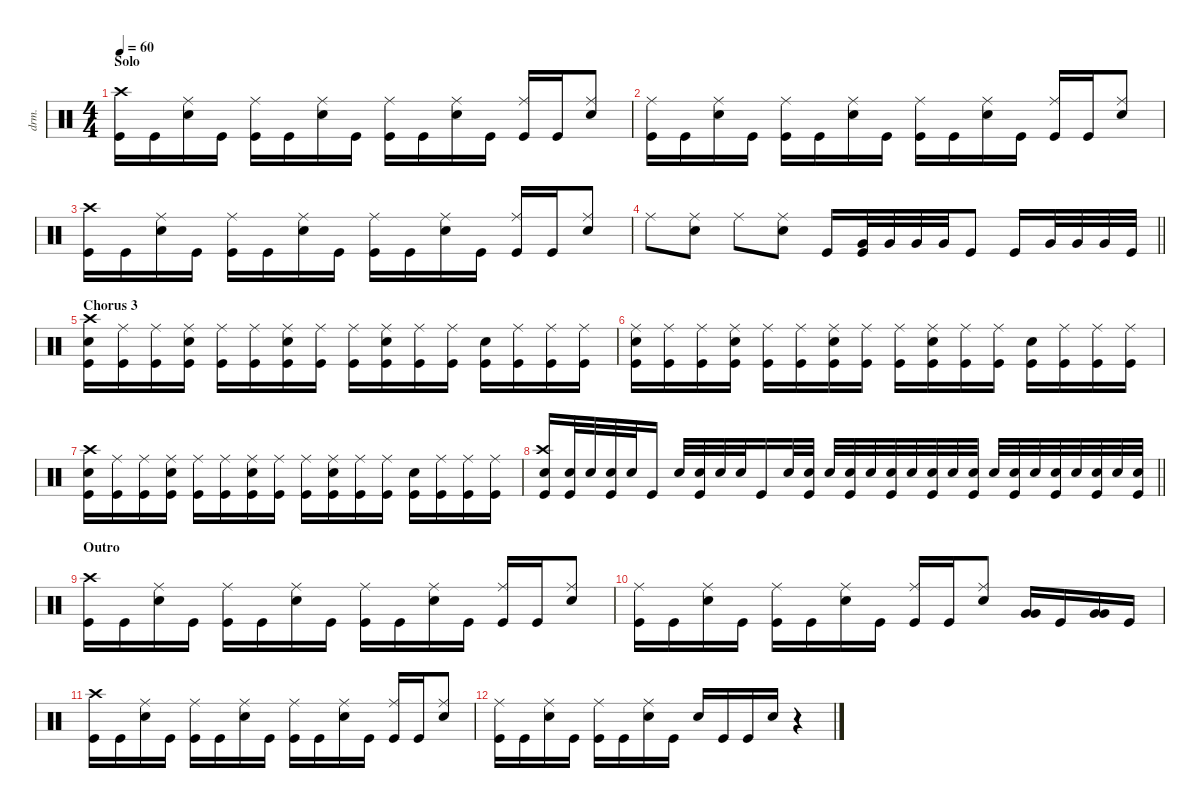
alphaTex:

\defaultSystemsLayout 4
\hideDynamics
\bracketExtendMode nobrackets
\otherSystemsTrackNameOrientation horizontal
\track ("Drums" "drm.") {defaultSystemsLayout 4 instrument percussion}
\staff {score}
\articulation defaults
\ts (4 4)
\section ("" "Solo")
\tempo 60
\clef neutral
\ks c
("Crash high (hit)" "Kick (hit)").16{dy f beam Down} "Kick (hit)".16{beam Down} ("Ride (middle)" "Snare (hit) 2").16{beam Down} "Kick (hit)".16{beam Down} ("Ride (middle)" "Kick (hit)").16{beam Down} "Kick (hit)".16{beam Down} ("Ride (middle)" "Snare (hit) 2").16{beam Down} "Kick (hit)".16{beam Down} ("Ride (middle)" "Kick (hit)").16{beam Down} "Kick (hit)".16{beam Down} ("Ride (middle)" "Snare (hit) 2").16{beam Down} "Kick (hit)".16{beam Down} ("Ride (middle)" "Kick (hit)").16{beam Up} "Kick (hit)".16{beam Up} ("Ride (middle)" "Snare (hit) 2").8{beam Up} |
("Ride (middle)" "Kick (hit)").16{beam Down} "Kick (hit)".16{beam Down} ("Ride (middle)" "Snare (hit) 2").16{beam Down} "Kick (hit)".16{beam Down} ("Ride (middle)" "Kick (hit)").16{beam Down} "Kick (hit)".16{beam Down} ("Ride (middle)" "Snare (hit) 2").16{beam Down} "Kick (hit)".16{beam Down} ("Ride (middle)" "Kick (hit)").16{beam Down} "Kick (hit)".16{beam Down} ("Ride (middle)" "Snare (hit) 2").16{beam Down} "Kick (hit)".16{beam Down} ("Ride (middle)" "Kick (hit)").16{beam Up} "Kick (hit)".16{beam Up} ("Ride (middle)" "Snare (hit) 2").8{beam Up} |
("Crash high (hit)" "Kick (hit)").16{beam Down} "Kick (hit)".16{beam Down} ("Ride (middle)" "Snare (hit) 2").16{beam Down} "Kick (hit)".16{beam Down} ("Ride (middle)" "Kick (hit)").16{beam Down} "Kick (hit)".16{beam Down} ("Ride (middle)" "Snare (hit) 2").16{beam Down} "Kick (hit)".16{beam Down} ("Ride (middle)" "Kick (hit)").16{beam Down} "Kick (hit)".16{beam Down} ("Ride (middle)" "Snare (hit) 2").16{beam Down} "Kick (hit)".16{beam Down} ("Ride (middle)" "Kick (hit)").16{beam Up} "Kick (hit)".16{beam Up} ("Ride (middle)" "Snare (hit) 2").8{beam Up} |
\barLineRight lightlight "Ride (middle)".8{beam Down}
("Ride (middle)" "Snare (hit) 2").8{beam Down} "Ride (middle)".8{beam Down} ("Ride (middle)" "Snare (hit) 2").8{beam Down} "Kick (hit)".16{beam Up} ("Very Low Tom (hit)" "Kick (hit)").32{beam Up} "Very Low Tom (hit)".32{beam Up} "Very Low Tom (hit)".32{beam Up} "Very Low Tom (hit)".32{beam Up} "Kick (hit)".8{beam Up} "Kick (hit)".16{beam Up} "Very Low Tom (hit)".32{beam Up} "Very Low Tom (hit)".32{beam Up} "Very Low Tom (hit)".32{beam Up} "Kick (hit)".32{beam Up} |
\section ("" "Chorus 3")
("Crash high (hit)" "Snare (hit) 2" "Kick (hit)").16{beam Down} ("Ride (middle)" "Kick (hit)").16{beam Down} ("Ride (middle)" "Kick (hit)").16{beam Down} ("Ride (middle)" "Snare (hit) 2" "Kick (hit)").16{beam Down} ("Ride (middle)" "Kick (hit)").16{beam Down} ("Ride (middle)" "Kick (hit)").16{beam Down} ("Ride (middle)" "Snare (hit) 2" "Kick (hit)").16{beam Down} ("Ride (middle)" "Kick (hit)").16{beam Down} ("Ride (middle)" "Kick (hit)").16{beam Down} ("Ride (middle)" "Snare (hit) 2" "Kick (hit)").16{beam Down} ("Ride (middle)" "Kick (hit)").16{beam Down} ("Ride (middle)" "Kick (hit)").16{beam Down} ("Snare (hit) 2" "Kick (hit)").16{beam Down} ("Ride (middle)" "Kick (hit)").16{beam Down} ("Ride (middle)" "Kick (hit)").16{beam Down} ("Ride (middle)" "Kick (hit)").16{beam Down} |
("Ride (middle)" "Snare (hit) 2" "Kick (hit)").16{beam Down} ("Ride (middle)" "Kick (hit)").16{beam Down} ("Ride (middle)" "Kick (hit)").16{beam Down} ("Ride (middle)" "Snare (hit) 2" "Kick (hit)").16{beam Down} ("Ride (middle)" "Kick (hit)").16{beam Down} ("Ride (middle)" "Kick (hit)").16{beam Down} ("Ride (middle)" "Snare (hit) 2" "Kick (hit)").16{beam Down} ("Ride (middle)" "Kick (hit)").16{beam Down} ("Ride (middle)" "Kick (hit)").16{beam Down} ("Ride (middle)" "Snare (hit) 2" "Kick (hit)").16{beam Down} ("Ride (middle)" "Kick (hit)").16{beam Down} ("Ride (middle)" "Kick (hit)").16{beam Down} ("Snare (hit) 2" "Kick (hit)").16{beam Down} ("Ride (middle)" "Kick (hit)").16{beam Down} ("Ride (middle)" "Kick (hit)").16{beam Down} ("Ride (middle)" "Kick (hit)").16{beam Down} |
("Crash high (hit)" "Snare (hit) 2" "Kick (hit)").16{beam Down} ("Ride (middle)" "Kick (hit)").16{beam Down} ("Ride (middle)" "Kick (hit)").16{beam Down} ("Ride (middle)" "Snare (hit) 2" "Kick (hit)").16{beam Down} ("Ride (middle)" "Kick (hit)").16{beam Down} ("Ride (middle)" "Kick (hit)").16{beam Down} ("Ride (middle)" "Snare (hit) 2" "Kick (hit)").16{beam Down} ("Ride (middle)" "Kick (hit)").16{beam Down} ("Ride (middle)" "Kick (hit)").16{beam Down} ("Ride (middle)" "Snare (hit) 2" "Kick (hit)").16{beam Down} ("Ride (middle)" "Kick (hit)").16{beam Down} ("Ride (middle)" "Kick (hit)").16{beam Down} ("Snare (hit) 2" "Kick (hit)").16{beam Down} ("Ride (middle)" "Kick (hit)").16{beam Down} ("Ride (middle)" "Kick (hit)").16{beam Down} ("Ride (middle)" "Kick (hit)").16{beam Down} |
\barLineRight lightlight
("Crash high (hit)" "Snare (hit) 2" "Kick (hit)").16{beam Up} ("Snare (hit) 2" "Kick (hit)").32{beam Up} "Snare (hit) 2".32{beam Up} ("Snare (hit) 2" "Kick (hit)").32{beam Up} "Snare (hit) 2".32{beam Up} "Kick (hit)".16{beam Up} "Snare (hit) 2".32{beam Up} ("Snare (hit) 2" "Kick (hit)").32{beam Up} "Snare (hit) 2".32{beam Up} "Snare (hit) 2".32{beam Up} "Kick (hit)".16{beam Up} "Snare (hit) 2".32{beam Up} ("Snare (hit) 2" "Kick (hit)").32{beam Up} "Snare (hit) 2".32{beam Up} ("Snare (hit) 2" "Kick (hit)").32{beam Up} "Snare (hit) 2".32{beam Up} ("Snare (hit) 2" "Kick (hit)").32{beam Up} "Snare (hit) 2".32{beam Up} ("Snare (hit) 2" "Kick (hit)").32{beam Up} "Snare (hit) 2".32{beam Up} ("Snare (hit) 2" "Kick (hit)").32{beam Up} "Snare (hit) 2".32{beam Up} ("Snare (hit) 2" "Kick (hit)").32{beam Up} "Snare (hit) 2".32{beam Up} ("Snare (hit) 2" "Kick (hit)").32{beam Up} "Snare (hit) 2".32{beam Up} ("Snare (hit) 2" "Kick (hit)").32{beam Up} "Snare (hit) 2".32{beam Up} ("Snare (hit) 2" "Kick (hit)").32{beam Up} |
\section ("" "Outro")
("Crash high (hit)" "Kick (hit)").16{beam Down} "Kick (hit)".16{beam Down} ("Ride (middle)" "Snare (hit) 2").16{beam Down} "Kick (hit)".16{beam Down} ("Ride (middle)" "Kick (hit)").16{beam Down} "Kick (hit)".16{beam Down} ("Ride (middle)" "Snare (hit) 2").16{beam Down} "Kick (hit)".16{beam Down} ("Ride (middle)" "Kick (hit)").16{beam Down} "Kick (hit)".16{beam Down} ("Ride (middle)" "Snare (hit) 2").16{beam Down} "Kick (hit)".16{beam Down} ("Ride (middle)" "Kick (hit)").16{beam Up} "Kick (hit)".16{beam Up} ("Ride (middle)" "Snare (hit) 2").8{beam Up} |
("Ride (middle)" "Kick (hit)").16{beam Down} "Kick (hit)".16{beam Down} ("Ride (middle)" "Snare (hit) 2").16{beam Down} "Kick (hit)".16{beam Down} ("Ride (middle)" "Kick (hit)").16{beam Down} "Kick (hit)".16{beam Down} ("Ride (middle)" "Snare (hit) 2").16{beam Down} "Kick (hit)".16{beam Down} ("Ride (middle)" "Kick (hit)").16{beam Up} "Kick (hit)".16{beam Up} ("Ride (middle)" "Snare (hit) 2").8{beam Up} ("Very Low Tom (hit)" "Very Low Tom (hit)").16{beam Up} "Kick (hit)".16{beam Up} ("Very Low Tom (hit)" "Very Low Tom (hit)").16{beam Up} "Kick (hit)".16{beam Up} |
("Crash high (hit)" "Kick (hit)").16{beam Down} "Kick (hit)".16{beam Down} ("Ride (middle)" "Snare (hit) 2").16{beam Down} "Kick (hit)".16{beam Down} ("Ride (middle)" "Kick (hit)").16{beam Down} "Kick (hit)".16{beam Down} ("Ride (middle)" "Snare (hit) 2").16{beam Down} "Kick (hit)".16{beam Down} ("Ride (middle)" "Kick (hit)").16{beam Down} "Kick (hit)".16{beam Down} ("Ride (middle)" "Snare (hit) 2").16{beam Down} "Kick (hit)".16{beam Down} ("Ride (middle)" "Kick (hit)").16{beam Up} "Kick (hit)".16{beam Up} ("Ride (middle)" "Snare (hit) 2").8{beam Up} |
("Ride (middle)" "Kick (hit)").16{beam Down} "Kick (hit)".16{beam Down} ("Ride (middle)" "Snare (hit) 2").16{beam Down} "Kick (hit)".16{beam Down} ("Ride (middle)" "Kick (hit)").16{beam Down} "Kick (hit)".16{beam Down} ("Ride (middle)" "Snare (hit) 2").16{beam Down} "Kick (hit)".16{beam Down} "Snare (hit) 2".16{beam Up} "Kick (hit)".16{beam Up} "Kick (hit)".16{beam Up} "Snare (hit) 2".16{beam Up} r.4{beam Up}
